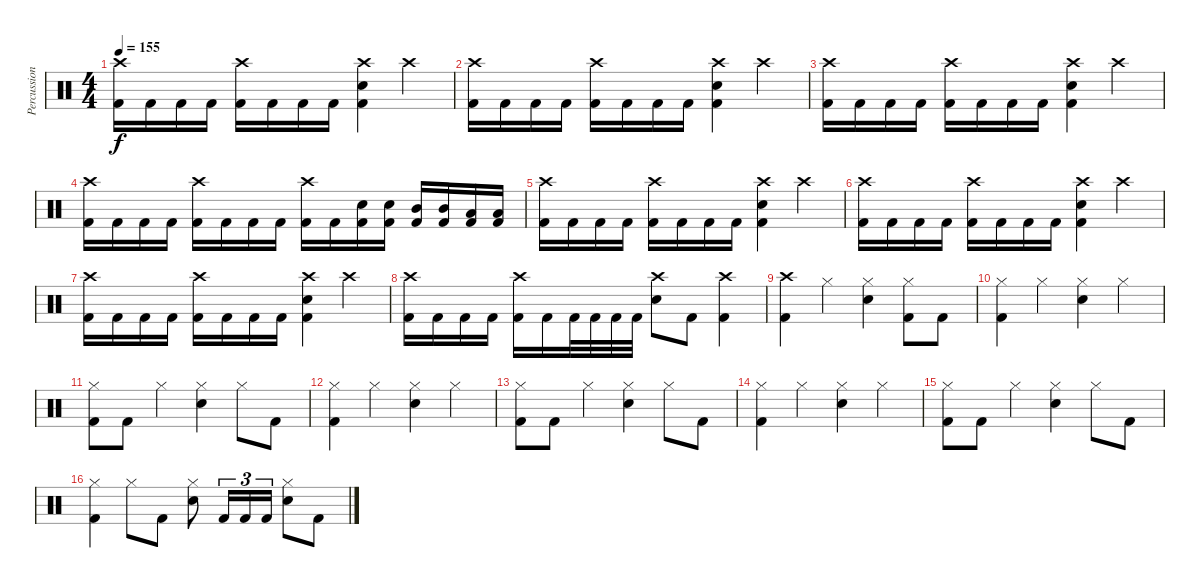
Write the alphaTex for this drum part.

\track ("Percussion" "Percussion") {instrument percussion}
\staff {score}
\articulation defaults
\ts (4 4)
\tempo 155
\clef neutral
\ks c
("Crash high (hit)" "Kick (hit) 2").16{dy f} "Kick (hit) 2".16 "Kick (hit) 2".16 "Kick (hit) 2".16 ("Crash high (hit)" "Kick (hit) 2").16 "Kick (hit) 2".16 "Kick (hit) 2".16 "Kick (hit) 2".16 ("Crash high (hit)" "Electric Snare (hit)" "Kick (hit) 2").4 "Crash high (hit)".4 |
("Crash high (hit)" "Kick (hit) 2").16 "Kick (hit) 2".16 "Kick (hit) 2".16 "Kick (hit) 2".16 ("Crash high (hit)" "Kick (hit) 2").16 "Kick (hit) 2".16 "Kick (hit) 2".16 "Kick (hit) 2".16 ("Crash high (hit)" "Electric Snare (hit)" "Kick (hit) 2").4 "Crash high (hit)".4 |
("Crash high (hit)" "Kick (hit) 2").16 "Kick (hit) 2".16 "Kick (hit) 2".16 "Kick (hit) 2".16 ("Crash high (hit)" "Kick (hit) 2").16 "Kick (hit) 2".16 "Kick (hit) 2".16 "Kick (hit) 2".16 ("Crash high (hit)" "Electric Snare (hit)" "Kick (hit) 2").4 "Crash high (hit)".4 |
("Crash high (hit)" "Kick (hit) 2").16 "Kick (hit) 2".16 "Kick (hit) 2".16 "Kick (hit) 2".16 ("Crash high (hit)" "Kick (hit) 2").16 "Kick (hit) 2".16 "Kick (hit) 2".16 "Kick (hit) 2".16 ("Crash high (hit)" "Kick (hit) 2").16 "Kick (hit) 2".16 ("Electric Snare (hit)" "Kick (hit) 2").16 ("Electric Snare (hit)" "Kick (hit) 2").16 ("Mid Tom (hit)" "Kick (hit) 2").16 ("Mid Tom (hit)" "Kick (hit) 2").16 ("Low Tom (hit)" "Kick (hit) 2").16 ("Low Tom (hit)" "Kick (hit) 2").16 |
("Crash high (hit)" "Kick (hit) 2").16 "Kick (hit) 2".16 "Kick (hit) 2".16 "Kick (hit) 2".16 ("Crash high (hit)" "Kick (hit) 2").16 "Kick (hit) 2".16 "Kick (hit) 2".16 "Kick (hit) 2".16 ("Crash high (hit)" "Electric Snare (hit)" "Kick (hit) 2").4 "Crash high (hit)".4 |
("Crash high (hit)" "Kick (hit) 2").16 "Kick (hit) 2".16 "Kick (hit) 2".16 "Kick (hit) 2".16 ("Crash high (hit)" "Kick (hit) 2").16 "Kick (hit) 2".16 "Kick (hit) 2".16 "Kick (hit) 2".16 ("Crash high (hit)" "Electric Snare (hit)" "Kick (hit) 2").4 "Crash high (hit)".4 |
("Crash high (hit)" "Kick (hit) 2").16 "Kick (hit) 2".16 "Kick (hit) 2".16 "Kick (hit) 2".16 ("Crash high (hit)" "Kick (hit) 2").16 "Kick (hit) 2".16 "Kick (hit) 2".16 "Kick (hit) 2".16 ("Crash high (hit)" "Electric Snare (hit)" "Kick (hit) 2").4 "Crash high (hit)".4 |
("Crash high (hit)" "Kick (hit) 2").16 "Kick (hit) 2".16 "Kick (hit) 2".16 "Kick (hit) 2".16 ("Crash high (hit)" "Kick (hit) 2").16 "Kick (hit) 2".16 "Kick (hit) 2".32 "Kick (hit) 2".32 "Kick (hit) 2".32 "Kick (hit) 2".32 ("Crash high (hit)" "Electric Snare (hit)").8 "Kick (hit) 2".8 ("Crash high (hit)" "Kick (hit) 2").4 |
("Crash high (hit)" "Kick (hit) 2").4 "Hi-Hat (closed)".4 ("Hi-Hat (closed)" "Electric Snare (hit)").4 ("Hi-Hat (closed)" "Kick (hit) 2").8 "Kick (hit) 2".8 |
("Hi-Hat (closed)" "Kick (hit) 2").4 "Hi-Hat (closed)".4 ("Hi-Hat (closed)" "Electric Snare (hit)").4 "Hi-Hat (closed)".4 |
("Hi-Hat (closed)" "Kick (hit) 2").8 "Kick (hit) 2".8 "Hi-Hat (closed)".4 ("Hi-Hat (closed)" "Electric Snare (hit)").4 "Hi-Hat (closed)".8 "Kick (hit) 2".8 |
("Hi-Hat (closed)" "Kick (hit) 2").4 "Hi-Hat (closed)".4 ("Hi-Hat (closed)" "Electric Snare (hit)").4 "Hi-Hat (closed)".4 |
("Hi-Hat (closed)" "Kick (hit) 2").8 "Kick (hit) 2".8 "Hi-Hat (closed)".4 ("Hi-Hat (closed)" "Electric Snare (hit)").4 "Hi-Hat (closed)".8 "Kick (hit) 2".8 |
("Hi-Hat (closed)" "Kick (hit) 2").4 "Hi-Hat (closed)".4 ("Hi-Hat (closed)" "Electric Snare (hit)").4 "Hi-Hat (closed)".4 |
("Hi-Hat (closed)" "Kick (hit) 2").8 "Kick (hit) 2".8 "Hi-Hat (closed)".4 ("Hi-Hat (closed)" "Electric Snare (hit)").4 "Hi-Hat (closed)".8 "Kick (hit) 2".8 |
("Hi-Hat (closed)" "Kick (hit) 2").4 "Hi-Hat (closed)".8 "Kick (hit) 2".8 ("Hi-Hat (closed)" "Electric Snare (hit)").8 "Kick (hit) 2".16{tu (3 2)} "Kick (hit) 2".16{tu (3 2)} "Kick (hit) 2".16{tu (3 2)} ("Hi-Hat (closed)" "Electric Snare (hit)").8 "Kick (hit) 2".8
